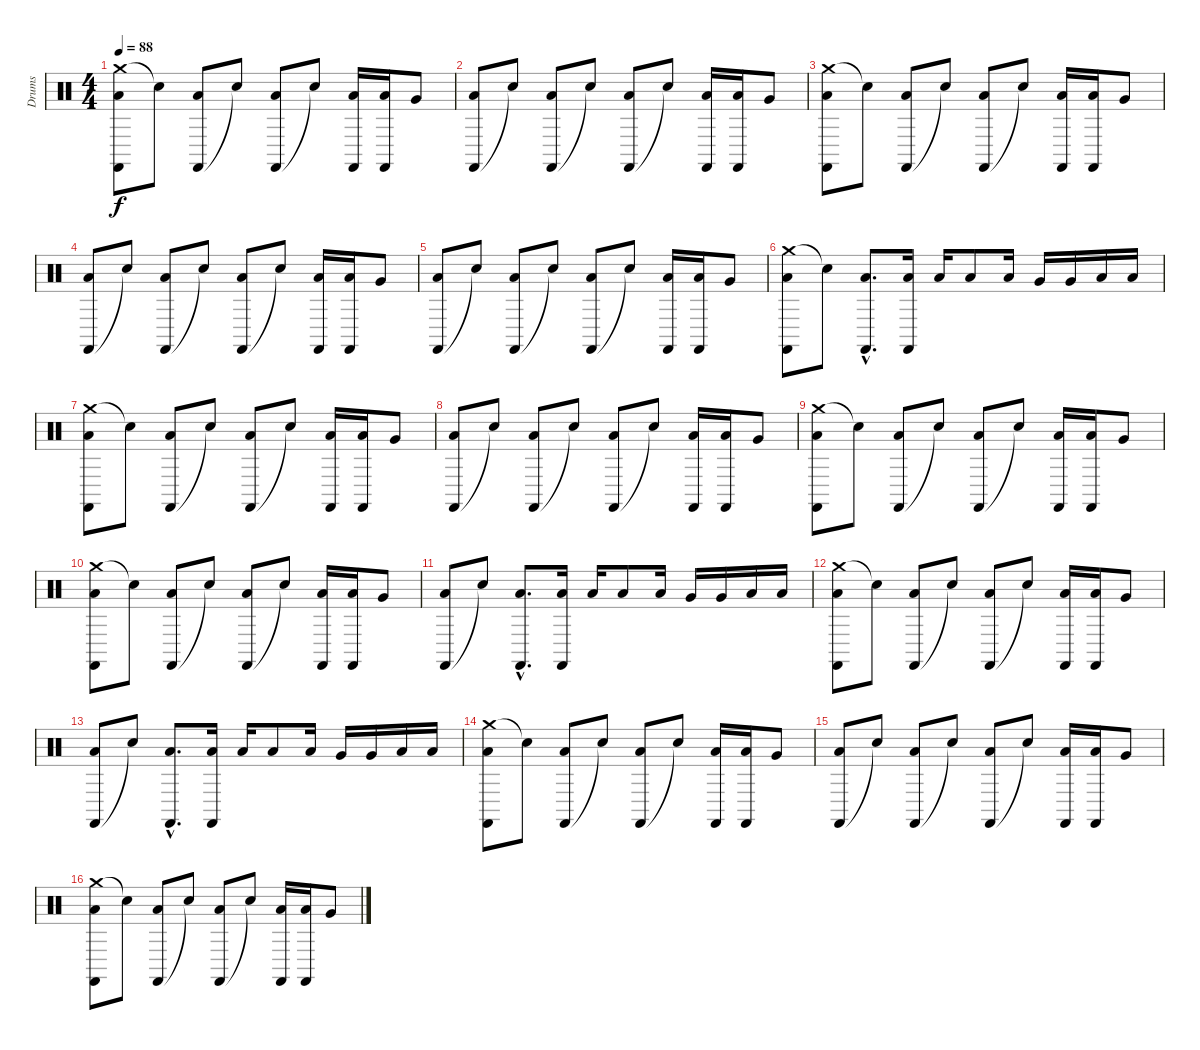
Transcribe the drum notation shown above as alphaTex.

\track ("Drums" "Drums") {instrument percussion}
\staff {score}
\articulation defaults
\ts (4 4)
\tempo 88
\clef neutral
\ks c
("Crash medium (hit)" "Castanets (hit)" "Low Floor Tom (hit)").8{dy f} "Snare (hit)"{t}.8 ("Castanets (hit)" "Low Floor Tom (hit)").8 "Snare (hit)"{t}.8 ("Castanets (hit)" "Low Floor Tom (hit)").8 "Snare (hit)"{t}.8 ("Castanets (hit)" "Low Floor Tom (hit)").16 ("Castanets (hit)" "Low Floor Tom (hit)").16 "Very Low Tom (hit)".8 |
("Castanets (hit)" "Low Floor Tom (hit)").8 "Snare (hit)"{t}.8 ("Castanets (hit)" "Low Floor Tom (hit)").8 "Snare (hit)"{t}.8 ("Castanets (hit)" "Low Floor Tom (hit)").8 "Snare (hit)"{t}.8 ("Castanets (hit)" "Low Floor Tom (hit)").16 ("Castanets (hit)" "Low Floor Tom (hit)").16 "Very Low Tom (hit)".8 |
("Crash medium (hit)" "Castanets (hit)" "Low Floor Tom (hit)").8 "Snare (hit)"{t}.8 ("Castanets (hit)" "Low Floor Tom (hit)").8 "Snare (hit)"{t}.8 ("Castanets (hit)" "Low Floor Tom (hit)").8 "Snare (hit)"{t}.8 ("Castanets (hit)" "Low Floor Tom (hit)").16 ("Castanets (hit)" "Low Floor Tom (hit)").16 "Very Low Tom (hit)".8 |
("Castanets (hit)" "Low Floor Tom (hit)").8 "Snare (hit)"{t}.8 ("Castanets (hit)" "Low Floor Tom (hit)").8 "Snare (hit)"{t}.8 ("Castanets (hit)" "Low Floor Tom (hit)").8 "Snare (hit)"{t}.8 ("Castanets (hit)" "Low Floor Tom (hit)").16 ("Castanets (hit)" "Low Floor Tom (hit)").16 "Very Low Tom (hit)".8 |
("Castanets (hit)" "Low Floor Tom (hit)").8 "Snare (hit)"{t}.8 ("Castanets (hit)" "Low Floor Tom (hit)").8 "Snare (hit)"{t}.8 ("Castanets (hit)" "Low Floor Tom (hit)").8 "Snare (hit)"{t}.8 ("Castanets (hit)" "Low Floor Tom (hit)").16 ("Castanets (hit)" "Low Floor Tom (hit)").16 "Very Low Tom (hit)".8 |
("Crash medium (hit)" "Castanets (hit)" "Low Floor Tom (hit)").8 "Snare (hit)"{t}.8 ("Castanets (hit)"{hac} "Low Floor Tom (hit)"{hac}).8{d} ("Castanets (hit)" "Low Floor Tom (hit)").16 "Low Tom (hit)".16 "Low Tom (hit)".8 "Low Tom (hit)".16 "Very Low Tom (hit)".16 "Very Low Tom (hit)".16 "Low Floor Tom (hit)".16 "Low Floor Tom (hit)".16 |
("Crash medium (hit)" "Castanets (hit)" "Low Floor Tom (hit)").8 "Snare (hit)"{t}.8 ("Castanets (hit)" "Low Floor Tom (hit)").8 "Snare (hit)"{t}.8 ("Castanets (hit)" "Low Floor Tom (hit)").8 "Snare (hit)"{t}.8 ("Castanets (hit)" "Low Floor Tom (hit)").16 ("Castanets (hit)" "Low Floor Tom (hit)").16 "Very Low Tom (hit)".8 |
("Castanets (hit)" "Low Floor Tom (hit)").8 "Snare (hit)"{t}.8 ("Castanets (hit)" "Low Floor Tom (hit)").8 "Snare (hit)"{t}.8 ("Castanets (hit)" "Low Floor Tom (hit)").8 "Snare (hit)"{t}.8 ("Castanets (hit)" "Low Floor Tom (hit)").16 ("Castanets (hit)" "Low Floor Tom (hit)").16 "Very Low Tom (hit)".8 |
("Crash medium (hit)" "Castanets (hit)" "Low Floor Tom (hit)").8 "Snare (hit)"{t}.8 ("Castanets (hit)" "Low Floor Tom (hit)").8 "Snare (hit)"{t}.8 ("Castanets (hit)" "Low Floor Tom (hit)").8 "Snare (hit)"{t}.8 ("Castanets (hit)" "Low Floor Tom (hit)").16 ("Castanets (hit)" "Low Floor Tom (hit)").16 "Very Low Tom (hit)".8 |
("Crash medium (hit)" "Castanets (hit)" "Low Floor Tom (hit)").8 "Snare (hit)"{t}.8 ("Castanets (hit)" "Low Floor Tom (hit)").8 "Snare (hit)"{t}.8 ("Castanets (hit)" "Low Floor Tom (hit)").8 "Snare (hit)"{t}.8 ("Castanets (hit)" "Low Floor Tom (hit)").16 ("Castanets (hit)" "Low Floor Tom (hit)").16 "Very Low Tom (hit)".8 |
("Castanets (hit)" "Low Floor Tom (hit)").8 "Snare (hit)"{t}.8 ("Castanets (hit)"{hac} "Low Floor Tom (hit)"{hac}).8{d} ("Castanets (hit)" "Low Floor Tom (hit)").16 "Low Tom (hit)".16 "Low Tom (hit)".8 "Low Tom (hit)".16 "Very Low Tom (hit)".16 "Very Low Tom (hit)".16 "Low Floor Tom (hit)".16 "Low Floor Tom (hit)".16 |
("Crash medium (hit)" "Castanets (hit)" "Low Floor Tom (hit)").8 "Snare (hit)"{t}.8 ("Castanets (hit)" "Low Floor Tom (hit)").8 "Snare (hit)"{t}.8 ("Castanets (hit)" "Low Floor Tom (hit)").8 "Snare (hit)"{t}.8 ("Castanets (hit)" "Low Floor Tom (hit)").16 ("Castanets (hit)" "Low Floor Tom (hit)").16 "Very Low Tom (hit)".8 |
("Castanets (hit)" "Low Floor Tom (hit)").8 "Snare (hit)"{t}.8 ("Castanets (hit)"{hac} "Low Floor Tom (hit)"{hac}).8{d} ("Castanets (hit)" "Low Floor Tom (hit)").16 "Low Tom (hit)".16 "Low Tom (hit)".8 "Low Tom (hit)".16 "Very Low Tom (hit)".16 "Very Low Tom (hit)".16 "Low Floor Tom (hit)".16 "Low Floor Tom (hit)".16 |
("Crash medium (hit)" "Castanets (hit)" "Low Floor Tom (hit)").8 "Snare (hit)"{t}.8 ("Castanets (hit)" "Low Floor Tom (hit)").8 "Snare (hit)"{t}.8 ("Castanets (hit)" "Low Floor Tom (hit)").8 "Snare (hit)"{t}.8 ("Castanets (hit)" "Low Floor Tom (hit)").16 ("Castanets (hit)" "Low Floor Tom (hit)").16 "Very Low Tom (hit)".8 |
("Castanets (hit)" "Low Floor Tom (hit)").8 "Snare (hit)"{t}.8 ("Castanets (hit)" "Low Floor Tom (hit)").8 "Snare (hit)"{t}.8 ("Castanets (hit)" "Low Floor Tom (hit)").8 "Snare (hit)"{t}.8 ("Castanets (hit)" "Low Floor Tom (hit)").16 ("Castanets (hit)" "Low Floor Tom (hit)").16 "Very Low Tom (hit)".8 |
("Crash medium (hit)" "Castanets (hit)" "Low Floor Tom (hit)").8 "Snare (hit)"{t}.8 ("Castanets (hit)" "Low Floor Tom (hit)").8 "Snare (hit)"{t}.8 ("Castanets (hit)" "Low Floor Tom (hit)").8 "Snare (hit)"{t}.8 ("Castanets (hit)" "Low Floor Tom (hit)").16 ("Castanets (hit)" "Low Floor Tom (hit)").16 "Very Low Tom (hit)".8
